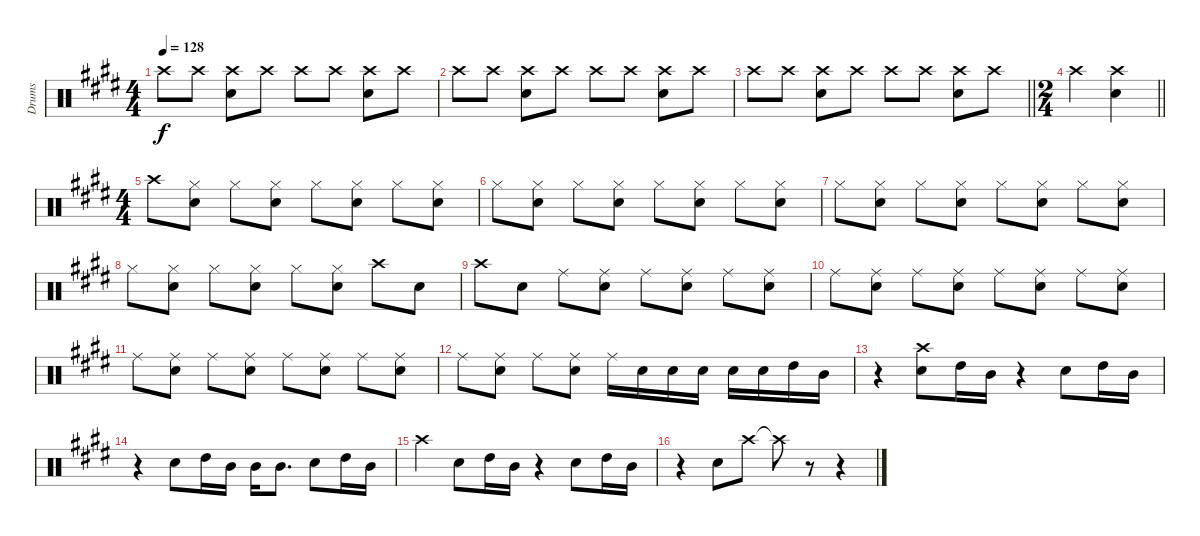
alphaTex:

\track ("Drums" "Drums") {instrument percussion}
\staff {score}
\articulation defaults
\ts (4 4)
\tempo 128
\clef neutral
\ks e "Crash high (hit)".8{dy f} "Crash high (hit)".8
("Crash high (hit)" "Snare (hit) 2").8 "Crash high (hit)".8 "Crash high (hit)".8 "Crash high (hit)".8 ("Crash high (hit)" "Snare (hit) 2").8 "Crash high (hit)".8 |
"Crash high (hit)".8 "Crash high (hit)".8 ("Crash high (hit)" "Snare (hit) 2").8 "Crash high (hit)".8 "Crash high (hit)".8 "Crash high (hit)".8 ("Crash high (hit)" "Snare (hit) 2").8 "Crash high (hit)".8 |
\barLineRight lightlight "Crash high (hit)".8 "Crash high (hit)".8
("Crash high (hit)" "Snare (hit) 2").8 "Crash high (hit)".8 "Crash high (hit)".8 "Crash high (hit)".8 ("Crash high (hit)" "Snare (hit) 2").8 "Crash high (hit)".8 |
\ts (2 4)
\barLineRight lightlight "Crash high (hit)".4
("Crash high (hit)" "Snare (hit) 2").4 |
\ts (4 4)
"Crash high (hit)".8 ("Hi-Hat (closed)" "Snare (hit) 2").8 "Hi-Hat (closed)".8 ("Hi-Hat (closed)" "Snare (hit) 2").8 "Hi-Hat (closed)".8 ("Hi-Hat (closed)" "Snare (hit) 2").8 "Hi-Hat (closed)".8 ("Hi-Hat (closed)" "Snare (hit) 2").8 |
"Hi-Hat (closed)".8 ("Hi-Hat (closed)" "Snare (hit) 2").8 "Hi-Hat (closed)".8 ("Hi-Hat (closed)" "Snare (hit) 2").8 "Hi-Hat (closed)".8 ("Hi-Hat (closed)" "Snare (hit) 2").8 "Hi-Hat (closed)".8 ("Hi-Hat (closed)" "Snare (hit) 2").8 |
"Hi-Hat (closed)".8 ("Hi-Hat (closed)" "Snare (hit) 2").8 "Hi-Hat (closed)".8 ("Hi-Hat (closed)" "Snare (hit) 2").8 "Hi-Hat (closed)".8 ("Hi-Hat (closed)" "Snare (hit) 2").8 "Hi-Hat (closed)".8 ("Hi-Hat (closed)" "Snare (hit) 2").8 |
"Hi-Hat (closed)".8 ("Hi-Hat (closed)" "Snare (hit) 2").8 "Hi-Hat (closed)".8 ("Hi-Hat (closed)" "Snare (hit) 2").8 "Hi-Hat (closed)".8 ("Hi-Hat (closed)" "Snare (hit) 2").8 "Crash high (hit)".8 "Snare (hit) 2".8 |
"Crash high (hit)".8 "Snare (hit) 2".8 "Ride (middle)".8 ("Ride (middle)" "Snare (hit) 2").8 "Ride (middle)".8 ("Ride (middle)" "Snare (hit) 2").8 "Ride (middle)".8 ("Ride (middle)" "Snare (hit) 2").8 |
"Ride (middle)".8 ("Ride (middle)" "Snare (hit) 2").8 "Ride (middle)".8 ("Ride (middle)" "Snare (hit) 2").8 "Ride (middle)".8 ("Ride (middle)" "Snare (hit) 2").8 "Ride (middle)".8 ("Ride (middle)" "Snare (hit) 2").8 |
"Ride (middle)".8 ("Ride (middle)" "Snare (hit) 2").8 "Ride (middle)".8 ("Ride (middle)" "Snare (hit) 2").8 "Ride (middle)".8 ("Ride (middle)" "Snare (hit) 2").8 "Ride (middle)".8 ("Ride (middle)" "Snare (hit) 2").8 |
"Ride (middle)".8 ("Ride (middle)" "Snare (hit) 2").8 "Ride (middle)".8 ("Ride (middle)" "Snare (hit) 2").8 "Ride (middle)".16 "Snare (hit) 2".16 "Snare (hit) 2".16 "Snare (hit) 2".16 "Snare (hit) 2".16 "Snare (hit) 2".16 "High Tom (hit)".16 "Mid Tom (hit)".16 |
r.4 ("Crash high (hit)" "Snare (hit) 2").8 "High Tom (hit)".16 "Mid Tom (hit)".16 r.4 "Snare (hit) 2".8 "High Tom (hit)".16 "Mid Tom (hit)".16 |
r.4 "Snare (hit) 2".8 "High Tom (hit)".16 "Mid Tom (hit)".16 "Mid Tom (hit)".16 "Mid Tom (hit)".8{d} "Snare (hit) 2".8 "High Tom (hit)".16 "Mid Tom (hit)".16 |
"Crash high (hit)".4 "Snare (hit) 2".8 "High Tom (hit)".16 "Mid Tom (hit)".16 r.4 "Snare (hit) 2".8 "High Tom (hit)".16 "Mid Tom (hit)".16 |
r.4 "Snare (hit) 2".8 "Crash high (hit)".8 "Crash high (hit)"{t}.8 r.8 r.4
